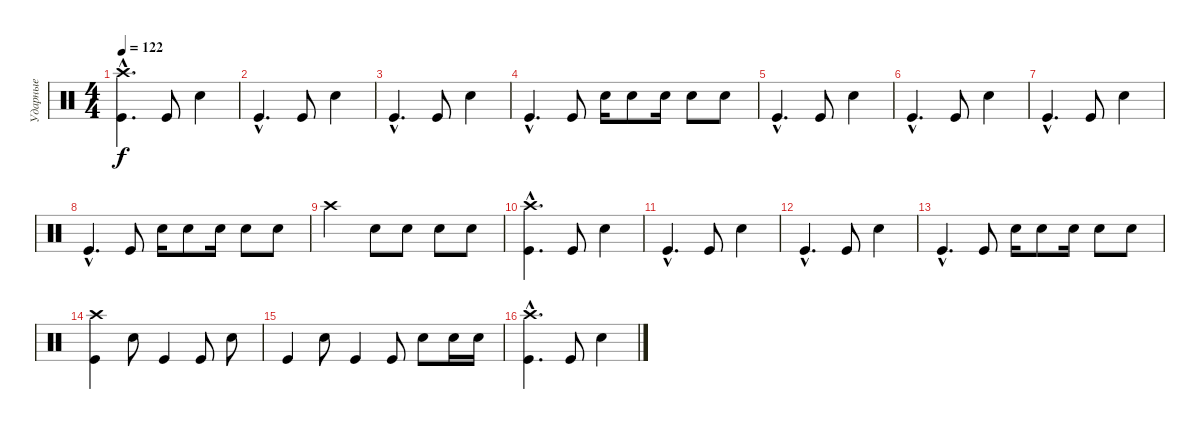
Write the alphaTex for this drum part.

\track ("Ударные" "Ударные") {instrument percussion}
\staff {score}
\articulation defaults
\ts (4 4)
\tempo 122
\clef neutral
\ks c
("Kick (hit)"{hac} "Crash high (hit)"{hac}).4{d dy f} "Kick (hit)".8 "Electric Snare (hit)".4 |
"Kick (hit)"{hac}.4{d} "Kick (hit)".8 "Electric Snare (hit)".4 |
"Kick (hit)"{hac}.4{d} "Kick (hit)".8 "Electric Snare (hit)".4 |
"Kick (hit)"{hac}.4{d} "Kick (hit)".8 "Electric Snare (hit)".16 "Electric Snare (hit)".8 "Electric Snare (hit)".16 "Electric Snare (hit)".8 "Electric Snare (hit)".8 |
"Kick (hit)"{hac}.4{d} "Kick (hit)".8 "Electric Snare (hit)".4 |
"Kick (hit)"{hac}.4{d} "Kick (hit)".8 "Electric Snare (hit)".4 |
"Kick (hit)"{hac}.4{d} "Kick (hit)".8 "Electric Snare (hit)".4 |
"Kick (hit)"{hac}.4{d} "Kick (hit)".8 "Electric Snare (hit)".16 "Electric Snare (hit)".8 "Electric Snare (hit)".16 "Electric Snare (hit)".8 "Electric Snare (hit)".8 |
"Crash high (hit)".2 "Electric Snare (hit)".8 "Electric Snare (hit)".8 "Electric Snare (hit)".8 "Electric Snare (hit)".8 |
("Kick (hit)"{hac} "Crash high (hit)"{hac}).4{d} "Kick (hit)".8 "Electric Snare (hit)".4 |
"Kick (hit)"{hac}.4{d} "Kick (hit)".8 "Electric Snare (hit)".4 |
"Kick (hit)"{hac}.4{d} "Kick (hit)".8 "Electric Snare (hit)".4 |
"Kick (hit)"{hac}.4{d} "Kick (hit)".8 "Electric Snare (hit)".16 "Electric Snare (hit)".8 "Electric Snare (hit)".16 "Electric Snare (hit)".8 "Electric Snare (hit)".8 |
("Kick (hit)" "Crash high (hit)").4 "Electric Snare (hit)".8 "Kick (hit)".4 "Kick (hit)".8 "Electric Snare (hit)".8 |
"Kick (hit)".4 "Electric Snare (hit)".8 "Kick (hit)".4 "Kick (hit)".8 "Electric Snare (hit)".8 "Electric Snare (hit)".16 "Electric Snare (hit)".16 |
("Kick (hit)"{hac} "Crash high (hit)"{hac}).4{d} "Kick (hit)".8 "Electric Snare (hit)".4
